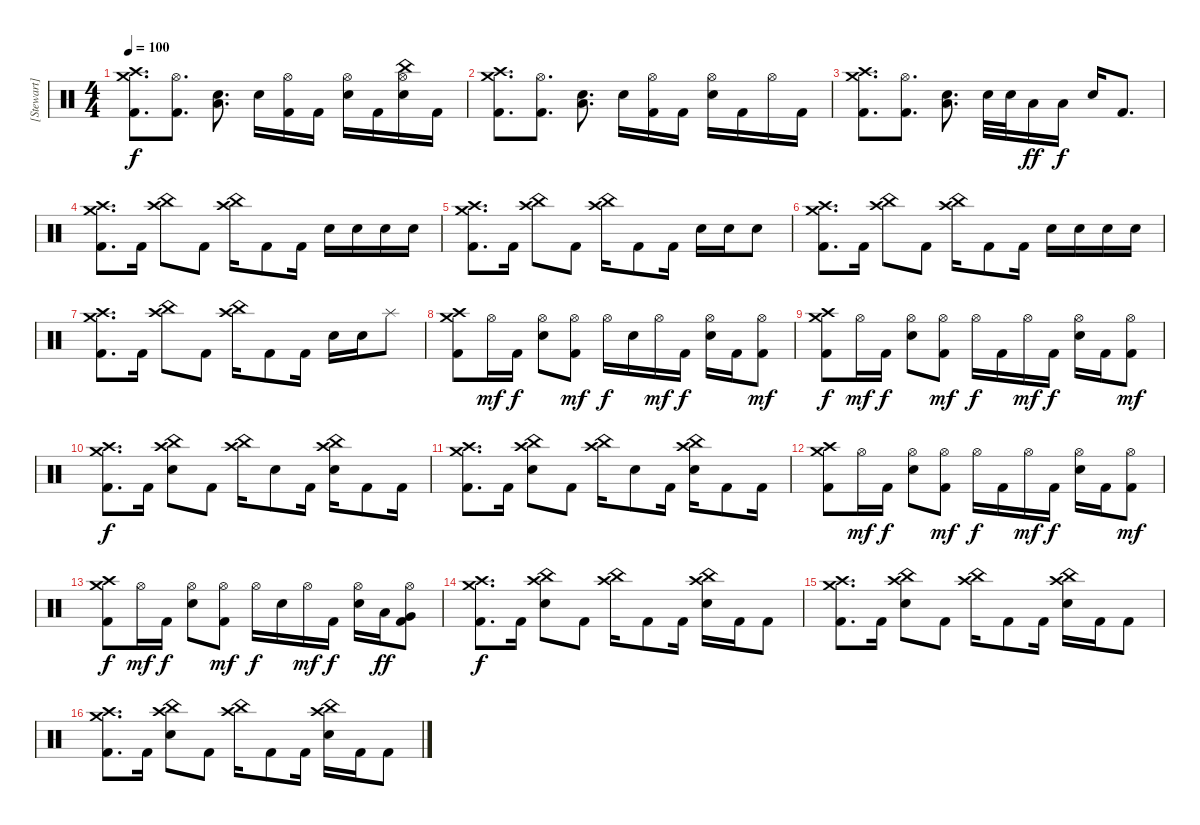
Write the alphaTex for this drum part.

\track ("[Stewart]" "[Stewart]") {instrument percussion}
\staff {score}
\articulation defaults
\ts (4 4)
\tempo 100
\clef neutral
\ks c
("Crash high (hit)" "Crash medium (hit)" "Kick (hit) 2").8{d dy f} ("Hi-Hat (open)" "Kick (hit) 2").8{d} ("Electric Snare (hit)" "Low Tom (hit)").8{d} "Electric Snare (hit)".16 ("Hi-Hat (open)" "Kick (hit) 2").16 "Kick (hit) 2".16 ("Hi-Hat (open)" "Electric Snare (hit)").16 "Kick (hit) 2".16 ("Hi-Hat (open)" "China (hit)" "Electric Snare (hit)").16 "Kick (hit) 2".16 |
("Crash high (hit)" "Crash medium (hit)" "Kick (hit) 2").8{d} ("Hi-Hat (open)" "Kick (hit) 2").8{d} ("Electric Snare (hit)" "Low Tom (hit)").8{d} "Electric Snare (hit)".16 ("Hi-Hat (open)" "Kick (hit) 2").16 "Kick (hit) 2".16 ("Hi-Hat (open)" "Electric Snare (hit)").16 "Kick (hit) 2".16 "Hi-Hat (open)".16 "Kick (hit) 2".16 |
("Crash high (hit)" "Crash medium (hit)" "Kick (hit) 2").8{d} ("Hi-Hat (open)" "Kick (hit) 2").8{d} ("Electric Snare (hit)" "Low Tom (hit)").8{d} "Electric Snare (hit)".32 "Electric Snare (hit)".32 "Low Tom (hit)".16{dy ff} "Low Tom (hit)".16{dy f} "Electric Snare (hit)".16 "Kick (hit) 2".8{d} |
("Crash high (hit)" "Crash medium (hit)" "Kick (hit) 2").8{d} "Kick (hit) 2".16 ("Crash high (hit)" "China (hit)").8 "Kick (hit) 2".8 ("Crash high (hit)" "China (hit)").16 "Kick (hit) 2".8 "Kick (hit) 2".16 "Electric Snare (hit)".16 "Electric Snare (hit)".16 "Electric Snare (hit)".16 "Electric Snare (hit)".16 |
("Crash high (hit)" "Crash medium (hit)" "Kick (hit) 2").8{d} "Kick (hit) 2".16 ("Crash high (hit)" "China (hit)").8 "Kick (hit) 2".8 ("Crash high (hit)" "China (hit)").16 "Kick (hit) 2".8 "Kick (hit) 2".16 "Electric Snare (hit)".16 "Electric Snare (hit)".16 "Electric Snare (hit)".8 |
("Crash high (hit)" "Crash medium (hit)" "Kick (hit) 2").8{d} "Kick (hit) 2".16 ("Crash high (hit)" "China (hit)").8 "Kick (hit) 2".8 ("Crash high (hit)" "China (hit)").16 "Kick (hit) 2".8 "Kick (hit) 2".16 "Electric Snare (hit)".16 "Electric Snare (hit)".16 "Electric Snare (hit)".16 "Electric Snare (hit)".16 |
("Crash high (hit)" "Crash medium (hit)" "Kick (hit) 2").8{d} "Kick (hit) 2".16 ("Crash high (hit)" "China (hit)").8 "Kick (hit) 2".8 ("Crash high (hit)" "China (hit)").16 "Kick (hit) 2".8 "Kick (hit) 2".16 "Electric Snare (hit)".16 "Electric Snare (hit)".16 "Splash (hit)".8 |
("Crash high (hit)" "Crash medium (hit)" "Kick (hit) 2").8 "Hi-Hat (open)".16{dy mf} "Kick (hit) 2".16{dy f} ("Hi-Hat (open)" "Electric Snare (hit)").8 ("Hi-Hat (open)" "Kick (hit) 2").8{dy mf} "Hi-Hat (open)".16{dy f} "Electric Snare (hit)".16 "Hi-Hat (open)".16{dy mf} "Kick (hit) 2".16{dy f} ("Hi-Hat (open)" "Electric Snare (hit)").16 "Kick (hit) 2".16 ("Hi-Hat (open)" "Kick (hit) 2").8{dy mf} |
("Crash high (hit)" "Crash medium (hit)" "Kick (hit) 2").8{dy f} "Hi-Hat (open)".16{dy mf} "Kick (hit) 2".16{dy f} ("Hi-Hat (open)" "Electric Snare (hit)").8 ("Hi-Hat (open)" "Kick (hit) 2").8{dy mf} "Hi-Hat (open)".16{dy f} "Kick (hit) 2".16 "Hi-Hat (open)".16{dy mf} "Kick (hit) 2".16{dy f} ("Hi-Hat (open)" "Electric Snare (hit)").16 "Kick (hit) 2".16 ("Hi-Hat (open)" "Kick (hit) 2").8{dy mf} |
("Crash high (hit)" "Crash medium (hit)" "Kick (hit) 2").8{d dy f} "Kick (hit) 2".16 ("Crash high (hit)" "China (hit)" "Electric Snare (hit)").8 "Kick (hit) 2".8 ("Crash high (hit)" "China (hit)").16 "Electric Snare (hit)".8 "Kick (hit) 2".16 ("Crash high (hit)" "China (hit)" "Electric Snare (hit)").16 "Kick (hit) 2".8 "Kick (hit) 2".16 |
("Crash high (hit)" "Crash medium (hit)" "Kick (hit) 2").8{d} "Kick (hit) 2".16 ("Crash high (hit)" "China (hit)" "Electric Snare (hit)").8 "Kick (hit) 2".8 ("Crash high (hit)" "China (hit)").16 "Electric Snare (hit)".8 "Kick (hit) 2".16 ("Crash high (hit)" "China (hit)" "Electric Snare (hit)").16 "Kick (hit) 2".8 "Kick (hit) 2".16 |
("Crash high (hit)" "Crash medium (hit)" "Kick (hit) 2").8 "Hi-Hat (open)".16{dy mf} "Kick (hit) 2".16{dy f} ("Hi-Hat (open)" "Electric Snare (hit)").8 ("Hi-Hat (open)" "Kick (hit) 2").8{dy mf} "Hi-Hat (open)".16{dy f} "Kick (hit) 2".16 "Hi-Hat (open)".16{dy mf} "Kick (hit) 2".16{dy f} ("Hi-Hat (open)" "Electric Snare (hit)").16 "Kick (hit) 2".16 ("Hi-Hat (open)" "Kick (hit) 2").8{dy mf} |
("Crash high (hit)" "Crash medium (hit)" "Kick (hit) 2").8{dy f} "Hi-Hat (open)".16{dy mf} "Kick (hit) 2".16{dy f} ("Hi-Hat (open)" "Electric Snare (hit)").8 ("Hi-Hat (open)" "Kick (hit) 2").8{dy mf} "Hi-Hat (open)".16{dy f} "Electric Snare (hit)".16 "Hi-Hat (open)".16{dy mf} "Kick (hit) 2".16{dy f} ("Hi-Hat (open)" "Electric Snare (hit)").16 "Low Tom (hit)".16{dy ff} ("Hi-Hat (open)" "Very Low Tom (hit)" "Kick (hit) 2").8 |
("Crash high (hit)" "Crash medium (hit)" "Kick (hit) 2").8{d dy f} "Kick (hit) 2".16 ("Crash high (hit)" "China (hit)" "Electric Snare (hit)").8 "Kick (hit) 2".8 ("Crash high (hit)" "China (hit)").16 "Kick (hit) 2".8 "Kick (hit) 2".16 ("Crash high (hit)" "China (hit)" "Electric Snare (hit)").16 "Kick (hit) 2".16 "Kick (hit) 2".8 |
("Crash high (hit)" "Crash medium (hit)" "Kick (hit) 2").8{d} "Kick (hit) 2".16 ("Crash high (hit)" "China (hit)" "Electric Snare (hit)").8 "Kick (hit) 2".8 ("Crash high (hit)" "China (hit)").16 "Kick (hit) 2".8 "Kick (hit) 2".16 ("Crash high (hit)" "China (hit)" "Electric Snare (hit)").16 "Kick (hit) 2".16 "Kick (hit) 2".8 |
("Crash high (hit)" "Crash medium (hit)" "Kick (hit) 2").8{d} "Kick (hit) 2".16 ("Crash high (hit)" "China (hit)" "Electric Snare (hit)").8 "Kick (hit) 2".8 ("Crash high (hit)" "China (hit)").16 "Kick (hit) 2".8 "Kick (hit) 2".16 ("Crash high (hit)" "China (hit)" "Electric Snare (hit)").16 "Kick (hit) 2".16 "Kick (hit) 2".8
